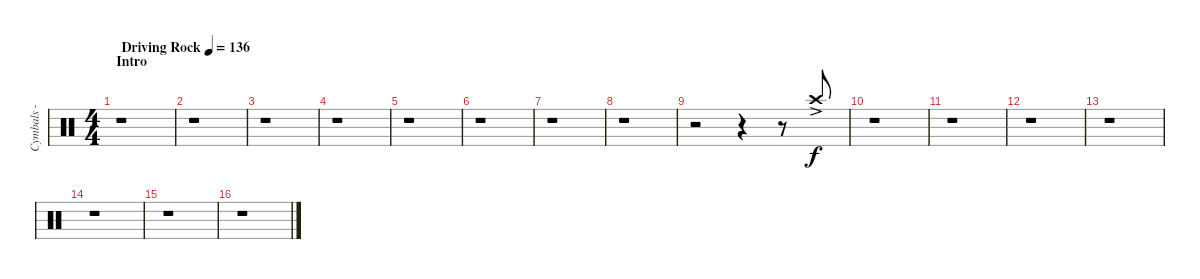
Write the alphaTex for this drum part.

\track ("Cymbals - crash - left" "Cymbals - ") {instrument percussion}
\staff {score}
\articulation defaults
\ts (4 4)
\section ("" "Intro")
\tempo (136 "Driving Rock")
\clef neutral
\ks c
r.1{dy f volume 3 balance 3} |
r.1 |
r.1 |
r.1 |
r.1 |
r.1 |
r.1 |
r.1 |
r.2 r.4{beam Up} r.8 "Crash high (hit)"{ac}.8{beam Up} |
r.1 |
r.1 |
r.1 |
r.1 |
r.1 |
r.1 |
r.1
